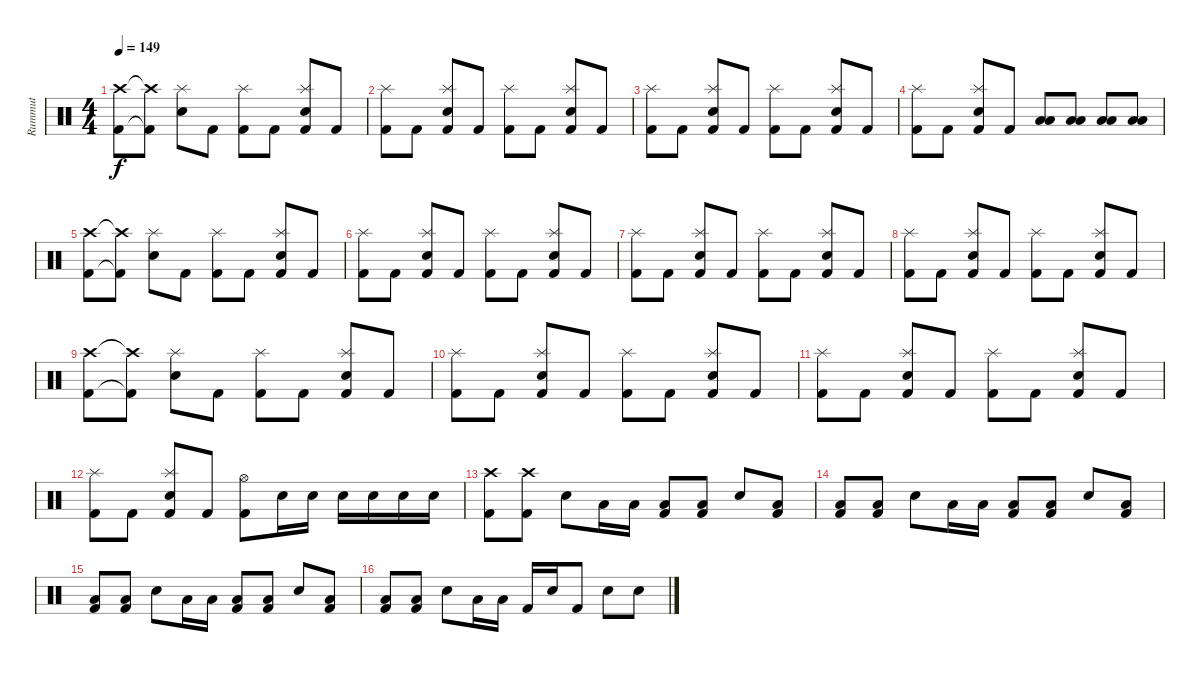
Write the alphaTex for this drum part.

\track ("Rummut" "Rummut") {instrument percussion}
\staff {score}
\articulation defaults
\ts (4 4)
\tempo 149
\clef neutral
\ks c
("Crash high (hit)" "Kick (hit) 2").8{dy f} ("Crash high (hit)"{t} "Kick (hit) 2"{t}).8 ("Splash (hit)" "Electric Snare (hit)").8 "Kick (hit) 2".8 ("Splash (hit)" "Kick (hit) 2").8 "Kick (hit) 2".8 ("Splash (hit)" "Electric Snare (hit)" "Kick (hit) 2").8 "Kick (hit) 2".8 |
("Splash (hit)" "Kick (hit) 2").8 "Kick (hit) 2".8 ("Splash (hit)" "Electric Snare (hit)" "Kick (hit) 2").8 "Kick (hit) 2".8 ("Splash (hit)" "Kick (hit) 2").8 "Kick (hit) 2".8 ("Splash (hit)" "Electric Snare (hit)" "Kick (hit) 2").8 "Kick (hit) 2".8 |
("Splash (hit)" "Kick (hit) 2").8 "Kick (hit) 2".8 ("Splash (hit)" "Electric Snare (hit)" "Kick (hit) 2").8 "Kick (hit) 2".8 ("Splash (hit)" "Kick (hit) 2").8 "Kick (hit) 2".8 ("Splash (hit)" "Electric Snare (hit)" "Kick (hit) 2").8 "Kick (hit) 2".8 |
("Splash (hit)" "Kick (hit) 2").8 "Kick (hit) 2".8 ("Splash (hit)" "Electric Snare (hit)" "Kick (hit) 2").8 "Kick (hit) 2".8 ("Low Tom (hit)" "Low Floor Tom (hit)").8 ("Low Tom (hit)" "Low Floor Tom (hit)").8 ("Low Tom (hit)" "Low Floor Tom (hit)").8 ("Low Tom (hit)" "Low Floor Tom (hit)").8 |
("Crash high (hit)" "Kick (hit) 2").8 ("Crash high (hit)"{t} "Kick (hit) 2"{t}).8 ("Splash (hit)" "Electric Snare (hit)").8 "Kick (hit) 2".8 ("Splash (hit)" "Kick (hit) 2").8 "Kick (hit) 2".8 ("Splash (hit)" "Electric Snare (hit)" "Kick (hit) 2").8 "Kick (hit) 2".8 |
("Splash (hit)" "Kick (hit) 2").8 "Kick (hit) 2".8 ("Splash (hit)" "Electric Snare (hit)" "Kick (hit) 2").8 "Kick (hit) 2".8 ("Splash (hit)" "Kick (hit) 2").8 "Kick (hit) 2".8 ("Splash (hit)" "Electric Snare (hit)" "Kick (hit) 2").8 "Kick (hit) 2".8 |
("Splash (hit)" "Kick (hit) 2").8 "Kick (hit) 2".8 ("Splash (hit)" "Electric Snare (hit)" "Kick (hit) 2").8 "Kick (hit) 2".8 ("Splash (hit)" "Kick (hit) 2").8 "Kick (hit) 2".8 ("Splash (hit)" "Electric Snare (hit)" "Kick (hit) 2").8 "Kick (hit) 2".8 |
("Splash (hit)" "Kick (hit) 2").8 "Kick (hit) 2".8 ("Splash (hit)" "Electric Snare (hit)" "Kick (hit) 2").8 "Kick (hit) 2".8 ("Splash (hit)" "Kick (hit) 2").8 "Kick (hit) 2".8 ("Splash (hit)" "Electric Snare (hit)" "Kick (hit) 2").8 "Kick (hit) 2".8 |
("Crash high (hit)" "Kick (hit) 2").8 ("Crash high (hit)"{t} "Kick (hit) 2"{t}).8 ("Splash (hit)" "Electric Snare (hit)").8 "Kick (hit) 2".8 ("Splash (hit)" "Kick (hit) 2").8 "Kick (hit) 2".8 ("Splash (hit)" "Electric Snare (hit)" "Kick (hit) 2").8 "Kick (hit) 2".8 |
("Splash (hit)" "Kick (hit) 2").8 "Kick (hit) 2".8 ("Splash (hit)" "Electric Snare (hit)" "Kick (hit) 2").8 "Kick (hit) 2".8 ("Splash (hit)" "Kick (hit) 2").8 "Kick (hit) 2".8 ("Splash (hit)" "Electric Snare (hit)" "Kick (hit) 2").8 "Kick (hit) 2".8 |
("Splash (hit)" "Kick (hit) 2").8 "Kick (hit) 2".8 ("Splash (hit)" "Electric Snare (hit)" "Kick (hit) 2").8 "Kick (hit) 2".8 ("Splash (hit)" "Kick (hit) 2").8 "Kick (hit) 2".8 ("Splash (hit)" "Electric Snare (hit)" "Kick (hit) 2").8 "Kick (hit) 2".8 |
("Splash (hit)" "Kick (hit) 2").8 "Kick (hit) 2".8 ("Splash (hit)" "Electric Snare (hit)" "Kick (hit) 2").8 "Kick (hit) 2".8 ("Hi-Hat (open)" "Kick (hit) 2").8 "Electric Snare (hit)".16 "Electric Snare (hit)".16 "Electric Snare (hit)".16 "Electric Snare (hit)".16 "Electric Snare (hit)".16 "Electric Snare (hit)".16 |
("Crash high (hit)" "Kick (hit) 2").8 ("Crash high (hit)" "Kick (hit) 2").8 "Electric Snare (hit)".8 "Low Tom (hit)".16 "Low Floor Tom (hit)".16 ("Low Tom (hit)" "Kick (hit) 2").8 ("Low Tom (hit)" "Kick (hit) 2").8 "Electric Snare (hit)".8 ("Low Tom (hit)" "Kick (hit) 2").8 |
("Low Tom (hit)" "Kick (hit) 2").8 ("Low Tom (hit)" "Kick (hit) 2").8 "Electric Snare (hit)".8 "Low Tom (hit)".16 "Low Floor Tom (hit)".16 ("Low Tom (hit)" "Kick (hit) 2").8 ("Low Tom (hit)" "Kick (hit) 2").8 "Electric Snare (hit)".8 ("Low Tom (hit)" "Kick (hit) 2").8 |
("Low Tom (hit)" "Kick (hit) 2").8 ("Low Tom (hit)" "Kick (hit) 2").8 "Electric Snare (hit)".8 "Low Tom (hit)".16 "Low Floor Tom (hit)".16 ("Low Tom (hit)" "Kick (hit) 2").8 ("Low Tom (hit)" "Kick (hit) 2").8 "Electric Snare (hit)".8 ("Low Tom (hit)" "Kick (hit) 2").8 |
("Low Tom (hit)" "Kick (hit) 2").8 ("Low Tom (hit)" "Kick (hit) 2").8 "Electric Snare (hit)".8 "Low Tom (hit)".16 "Low Floor Tom (hit)".16 "Kick (hit) 2".16 "Electric Snare (hit)".16 "Kick (hit) 2".8 "Electric Snare (hit)".8 "Electric Snare (hit)".8
